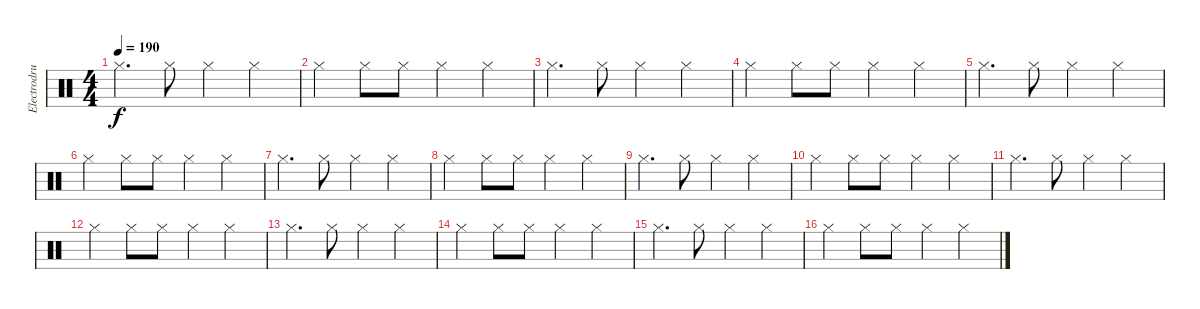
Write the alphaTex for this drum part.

\track ("Electrodrums1" "Electrodru") {instrument percussion}
\staff {score}
\articulation defaults
\ts (4 4)
\tempo 190
\clef neutral
\ks c "Hi-Hat (closed)".4{d dy f} "Hi-Hat (closed)".8 "Hi-Hat (closed)".4 "Hi-Hat (closed)".4
|
"Hi-Hat (closed)".4 "Hi-Hat (closed)".8 "Hi-Hat (closed)".8 "Hi-Hat (closed)".4 "Hi-Hat (closed)".4 |
"Hi-Hat (closed)".4{d} "Hi-Hat (closed)".8 "Hi-Hat (closed)".4 "Hi-Hat (closed)".4 |
"Hi-Hat (closed)".4 "Hi-Hat (closed)".8 "Hi-Hat (closed)".8 "Hi-Hat (closed)".4 "Hi-Hat (closed)".4 |
"Hi-Hat (closed)".4{d} "Hi-Hat (closed)".8 "Hi-Hat (closed)".4 "Hi-Hat (closed)".4 |
"Hi-Hat (closed)".4 "Hi-Hat (closed)".8 "Hi-Hat (closed)".8 "Hi-Hat (closed)".4 "Hi-Hat (closed)".4 |
"Hi-Hat (closed)".4{d} "Hi-Hat (closed)".8 "Hi-Hat (closed)".4 "Hi-Hat (closed)".4 |
"Hi-Hat (closed)".4 "Hi-Hat (closed)".8 "Hi-Hat (closed)".8 "Hi-Hat (closed)".4 "Hi-Hat (closed)".4 |
"Hi-Hat (closed)".4{d} "Hi-Hat (closed)".8 "Hi-Hat (closed)".4 "Hi-Hat (closed)".4 |
"Hi-Hat (closed)".4 "Hi-Hat (closed)".8 "Hi-Hat (closed)".8 "Hi-Hat (closed)".4 "Hi-Hat (closed)".4 |
"Hi-Hat (closed)".4{d} "Hi-Hat (closed)".8 "Hi-Hat (closed)".4 "Hi-Hat (closed)".4 |
"Hi-Hat (closed)".4 "Hi-Hat (closed)".8 "Hi-Hat (closed)".8 "Hi-Hat (closed)".4 "Hi-Hat (closed)".4 |
"Hi-Hat (closed)".4{d} "Hi-Hat (closed)".8 "Hi-Hat (closed)".4 "Hi-Hat (closed)".4 |
"Hi-Hat (closed)".4 "Hi-Hat (closed)".8 "Hi-Hat (closed)".8 "Hi-Hat (closed)".4 "Hi-Hat (closed)".4 |
"Hi-Hat (closed)".4{d} "Hi-Hat (closed)".8 "Hi-Hat (closed)".4 "Hi-Hat (closed)".4 |
"Hi-Hat (closed)".4 "Hi-Hat (closed)".8 "Hi-Hat (closed)".8 "Hi-Hat (closed)".4 "Hi-Hat (closed)".4
